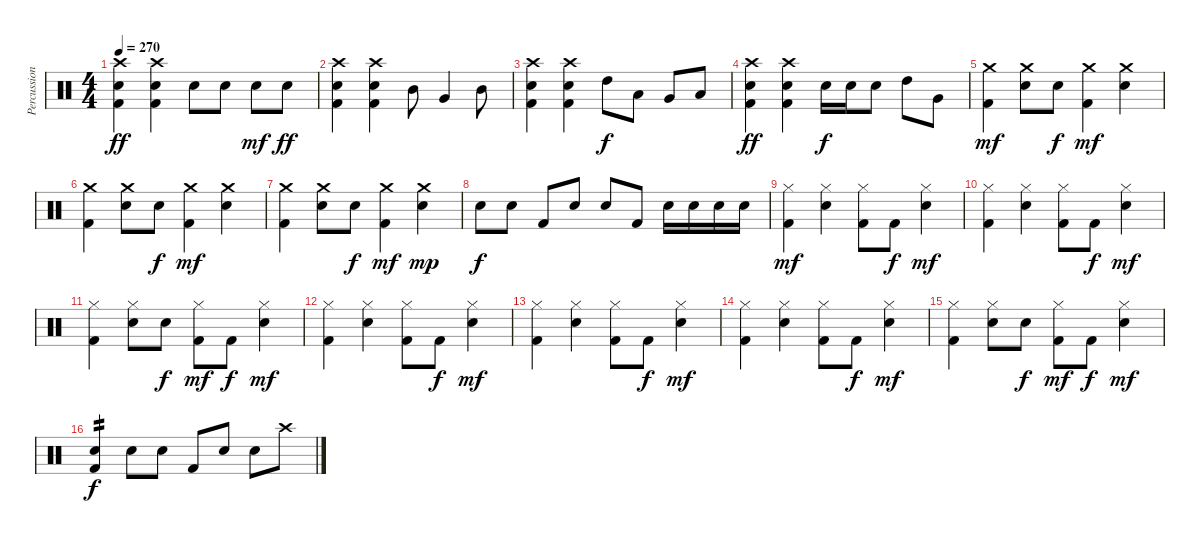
\track ("Percussion" "Percussion") {instrument percussion}
\staff {score}
\articulation defaults
\ts (4 4)
\tempo 270
\clef neutral
\ks c
("Crash high (hit)" "Electric Snare (hit)" "Kick (hit) 2").4{dy ff} ("Crash high (hit)" "Electric Snare (hit)" "Kick (hit) 2").4 "Electric Snare (hit)".8 "Electric Snare (hit)".8 "Electric Snare (hit)".8{dy mf} "Electric Snare (hit)".8{dy ff} |
("Crash high (hit)" "Electric Snare (hit)" "Kick (hit) 2").4 ("Crash high (hit)" "Electric Snare (hit)" "Kick (hit) 2").4 "Mid Tom (hit)".8 "Very Low Tom (hit)".4 "Mid Tom (hit)".8 |
("Crash high (hit)" "Electric Snare (hit)" "Kick (hit) 2").4 ("Crash high (hit)" "Electric Snare (hit)" "Kick (hit) 2").4 "High Tom (hit)".8{dy f} "Low Tom (hit)".8 "Very Low Tom (hit)".8 "Low Floor Tom (hit)".8 |
("Crash high (hit)" "Electric Snare (hit)" "Kick (hit) 2").4{dy ff} ("Crash high (hit)" "Electric Snare (hit)" "Kick (hit) 2").4 "Electric Snare (hit)".16{dy f} "Electric Snare (hit)".16 "Electric Snare (hit)".8 "High Tom (hit)".8 "Very Low Tom (hit)".8 |
("Crash medium (hit)" "Kick (hit) 2").4{dy mf} ("Crash medium (hit)" "Electric Snare (hit)").8 "Electric Snare (hit)".8{dy f} ("Crash medium (hit)" "Kick (hit) 2").4{dy mf} ("Crash medium (hit)" "Electric Snare (hit)").4 |
("Crash medium (hit)" "Kick (hit) 2").4 ("Crash medium (hit)" "Electric Snare (hit)").8 "Electric Snare (hit)".8{dy f} ("Crash medium (hit)" "Kick (hit) 2").4{dy mf} ("Crash medium (hit)" "Electric Snare (hit)").4 |
("Crash medium (hit)" "Kick (hit) 2").4 ("Crash medium (hit)" "Electric Snare (hit)").8 "Electric Snare (hit)".8{dy f} ("Crash medium (hit)" "Kick (hit) 2").4{dy mf} ("Crash medium (hit)" "Electric Snare (hit)").4{dy mp} |
"Electric Snare (hit)".8{dy f} "Electric Snare (hit)".8 "Kick (hit) 2".8 "Electric Snare (hit)".8 "Electric Snare (hit)".8 "Kick (hit) 2".8 "Electric Snare (hit)".16 "Electric Snare (hit)".16 "Electric Snare (hit)".16 "Electric Snare (hit)".16 |
("Hi-Hat (closed)" "Kick (hit) 2").4{dy mf} ("Hi-Hat (closed)" "Electric Snare (hit)").4 ("Hi-Hat (closed)" "Kick (hit) 2").8 "Kick (hit) 2".8{dy f} ("Hi-Hat (closed)" "Electric Snare (hit)").4{dy mf} |
("Hi-Hat (closed)" "Kick (hit) 2").4 ("Hi-Hat (closed)" "Electric Snare (hit)").4 ("Hi-Hat (closed)" "Kick (hit) 2").8 "Kick (hit) 2".8{dy f} ("Hi-Hat (closed)" "Electric Snare (hit)").4{dy mf} |
("Hi-Hat (closed)" "Kick (hit) 2").4 ("Hi-Hat (closed)" "Electric Snare (hit)").8 "Electric Snare (hit)".8{dy f} ("Hi-Hat (closed)" "Kick (hit) 2").8{dy mf} "Kick (hit) 2".8{dy f} ("Hi-Hat (closed)" "Electric Snare (hit)").4{dy mf} |
("Hi-Hat (closed)" "Kick (hit) 2").4 ("Hi-Hat (closed)" "Electric Snare (hit)").4 ("Hi-Hat (closed)" "Kick (hit) 2").8 "Kick (hit) 2".8{dy f} ("Hi-Hat (closed)" "Electric Snare (hit)").4{dy mf} |
("Hi-Hat (closed)" "Kick (hit) 2").4 ("Hi-Hat (closed)" "Electric Snare (hit)").4 ("Hi-Hat (closed)" "Kick (hit) 2").8 "Kick (hit) 2".8{dy f} ("Hi-Hat (closed)" "Electric Snare (hit)").4{dy mf} |
("Hi-Hat (closed)" "Kick (hit) 2").4 ("Hi-Hat (closed)" "Electric Snare (hit)").4 ("Hi-Hat (closed)" "Kick (hit) 2").8 "Kick (hit) 2".8{dy f} ("Hi-Hat (closed)" "Electric Snare (hit)").4{dy mf} |
("Hi-Hat (closed)" "Kick (hit) 2").4 ("Hi-Hat (closed)" "Electric Snare (hit)").8 "Electric Snare (hit)".8{dy f} ("Hi-Hat (closed)" "Kick (hit) 2").8{dy mf} "Kick (hit) 2".8{dy f} ("Hi-Hat (closed)" "Electric Snare (hit)").4{dy mf} |
("Electric Snare (hit)" "Kick (hit) 2").4{tp 2 dy f} "Electric Snare (hit)".8 "Electric Snare (hit)".8 "Kick (hit) 2".8 "Electric Snare (hit)".8 "Electric Snare (hit)".8 "Crash high (hit)".8
